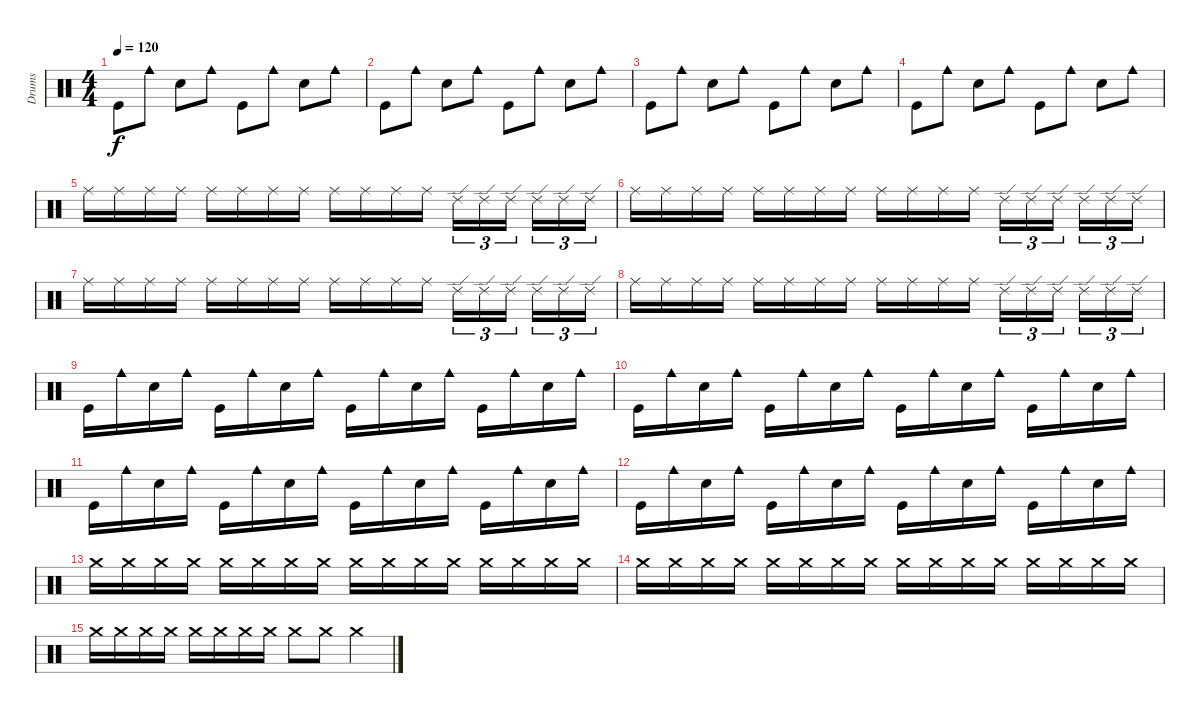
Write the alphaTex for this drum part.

\track ("Drums" "Drums") {instrument percussion}
\staff {score}
\articulation defaults
\ts (4 4)
\tempo 120
\clef neutral
\ks c "Kick (hit)".8{dy f} "Cowbell medium (hit)".8 "Electric Snare (hit)".8 "Cowbell medium (hit)".8 "Kick (hit)".8 "Cowbell medium (hit)".8 "Electric Snare (hit)".8 "Cowbell medium (hit)".8
|
"Kick (hit)".8 "Cowbell medium (hit)".8 "Electric Snare (hit)".8 "Cowbell medium (hit)".8 "Kick (hit)".8 "Cowbell medium (hit)".8 "Electric Snare (hit)".8 "Cowbell medium (hit)".8 |
"Kick (hit)".8 "Cowbell medium (hit)".8 "Electric Snare (hit)".8 "Cowbell medium (hit)".8 "Kick (hit)".8 "Cowbell medium (hit)".8 "Electric Snare (hit)".8 "Cowbell medium (hit)".8 |
"Kick (hit)".8 "Cowbell medium (hit)".8 "Electric Snare (hit)".8 "Cowbell medium (hit)".8 "Kick (hit)".8 "Cowbell medium (hit)".8 "Electric Snare (hit)".8 "Cowbell medium (hit)".8 |
"Ride (middle)".16 "Ride (middle)".16 "Ride (middle)".16 "Ride (middle)".16 "Ride (middle)".16 "Ride (middle)".16 "Ride (middle)".16 "Ride (middle)".16 "Ride (middle)".16 "Ride (middle)".16 "Ride (middle)".16 "Ride (middle)".16 "Ride (edge) 2".16{tu (3 2)} "Ride (edge) 2".16{tu (3 2)} "Ride (edge) 2".16{tu (3 2)} "Ride (edge) 2".16{tu (3 2)} "Ride (edge) 2".16{tu (3 2)} "Ride (edge) 2".16{tu (3 2)} |
"Ride (middle)".16 "Ride (middle)".16 "Ride (middle)".16 "Ride (middle)".16 "Ride (middle)".16 "Ride (middle)".16 "Ride (middle)".16 "Ride (middle)".16 "Ride (middle)".16 "Ride (middle)".16 "Ride (middle)".16 "Ride (middle)".16 "Ride (edge) 2".16{tu (3 2)} "Ride (edge) 2".16{tu (3 2)} "Ride (edge) 2".16{tu (3 2)} "Ride (edge) 2".16{tu (3 2)} "Ride (edge) 2".16{tu (3 2)} "Ride (edge) 2".16{tu (3 2)} |
"Ride (middle)".16 "Ride (middle)".16 "Ride (middle)".16 "Ride (middle)".16 "Ride (middle)".16 "Ride (middle)".16 "Ride (middle)".16 "Ride (middle)".16 "Ride (middle)".16 "Ride (middle)".16 "Ride (middle)".16 "Ride (middle)".16 "Ride (edge) 2".16{tu (3 2)} "Ride (edge) 2".16{tu (3 2)} "Ride (edge) 2".16{tu (3 2)} "Ride (edge) 2".16{tu (3 2)} "Ride (edge) 2".16{tu (3 2)} "Ride (edge) 2".16{tu (3 2)} |
"Ride (middle)".16 "Ride (middle)".16 "Ride (middle)".16 "Ride (middle)".16 "Ride (middle)".16 "Ride (middle)".16 "Ride (middle)".16 "Ride (middle)".16 "Ride (middle)".16 "Ride (middle)".16 "Ride (middle)".16 "Ride (middle)".16 "Ride (edge) 2".16{tu (3 2)} "Ride (edge) 2".16{tu (3 2)} "Ride (edge) 2".16{tu (3 2)} "Ride (edge) 2".16{tu (3 2)} "Ride (edge) 2".16{tu (3 2)} "Ride (edge) 2".16{tu (3 2)} |
"Kick (hit)".16 "Cowbell medium (hit)".16 "Electric Snare (hit)".16 "Cowbell medium (hit)".16 "Kick (hit)".16 "Cowbell medium (hit)".16 "Electric Snare (hit)".16 "Cowbell medium (hit)".16 "Kick (hit)".16 "Cowbell medium (hit)".16 "Electric Snare (hit)".16 "Cowbell medium (hit)".16 "Kick (hit)".16 "Cowbell medium (hit)".16 "Electric Snare (hit)".16 "Cowbell medium (hit)".16 |
"Kick (hit)".16 "Cowbell medium (hit)".16 "Electric Snare (hit)".16 "Cowbell medium (hit)".16 "Kick (hit)".16 "Cowbell medium (hit)".16 "Electric Snare (hit)".16 "Cowbell medium (hit)".16 "Kick (hit)".16 "Cowbell medium (hit)".16 "Electric Snare (hit)".16 "Cowbell medium (hit)".16 "Kick (hit)".16 "Cowbell medium (hit)".16 "Electric Snare (hit)".16 "Cowbell medium (hit)".16 |
"Kick (hit)".16 "Cowbell medium (hit)".16 "Electric Snare (hit)".16 "Cowbell medium (hit)".16 "Kick (hit)".16 "Cowbell medium (hit)".16 "Electric Snare (hit)".16 "Cowbell medium (hit)".16 "Kick (hit)".16 "Cowbell medium (hit)".16 "Electric Snare (hit)".16 "Cowbell medium (hit)".16 "Kick (hit)".16 "Cowbell medium (hit)".16 "Electric Snare (hit)".16 "Cowbell medium (hit)".16 |
"Kick (hit)".16 "Cowbell medium (hit)".16 "Electric Snare (hit)".16 "Cowbell medium (hit)".16 "Kick (hit)".16 "Cowbell medium (hit)".16 "Electric Snare (hit)".16 "Cowbell medium (hit)".16 "Kick (hit)".16 "Cowbell medium (hit)".16 "Electric Snare (hit)".16 "Cowbell medium (hit)".16 "Kick (hit)".16 "Cowbell medium (hit)".16 "Electric Snare (hit)".16 "Cowbell medium (hit)".16 |
"Crash medium (hit)".16 "Crash medium (hit)".16 "Crash medium (hit)".16 "Crash medium (hit)".16 "Crash medium (hit)".16 "Crash medium (hit)".16 "Crash medium (hit)".16 "Crash medium (hit)".16 "Crash medium (hit)".16 "Crash medium (hit)".16 "Crash medium (hit)".16 "Crash medium (hit)".16 "Crash medium (hit)".16 "Crash medium (hit)".16 "Crash medium (hit)".16 "Crash medium (hit)".16 |
"Crash medium (hit)".16 "Crash medium (hit)".16 "Crash medium (hit)".16 "Crash medium (hit)".16 "Crash medium (hit)".16 "Crash medium (hit)".16 "Crash medium (hit)".16 "Crash medium (hit)".16 "Crash medium (hit)".16 "Crash medium (hit)".16 "Crash medium (hit)".16 "Crash medium (hit)".16 "Crash medium (hit)".16 "Crash medium (hit)".16 "Crash medium (hit)".16 "Crash medium (hit)".16 |
"Crash medium (hit)".16 "Crash medium (hit)".16 "Crash medium (hit)".16 "Crash medium (hit)".16 "Crash medium (hit)".16 "Crash medium (hit)".16 "Crash medium (hit)".16 "Crash medium (hit)".16 "Crash medium (hit)".8 "Crash medium (hit)".8 "Crash medium (hit)".4
